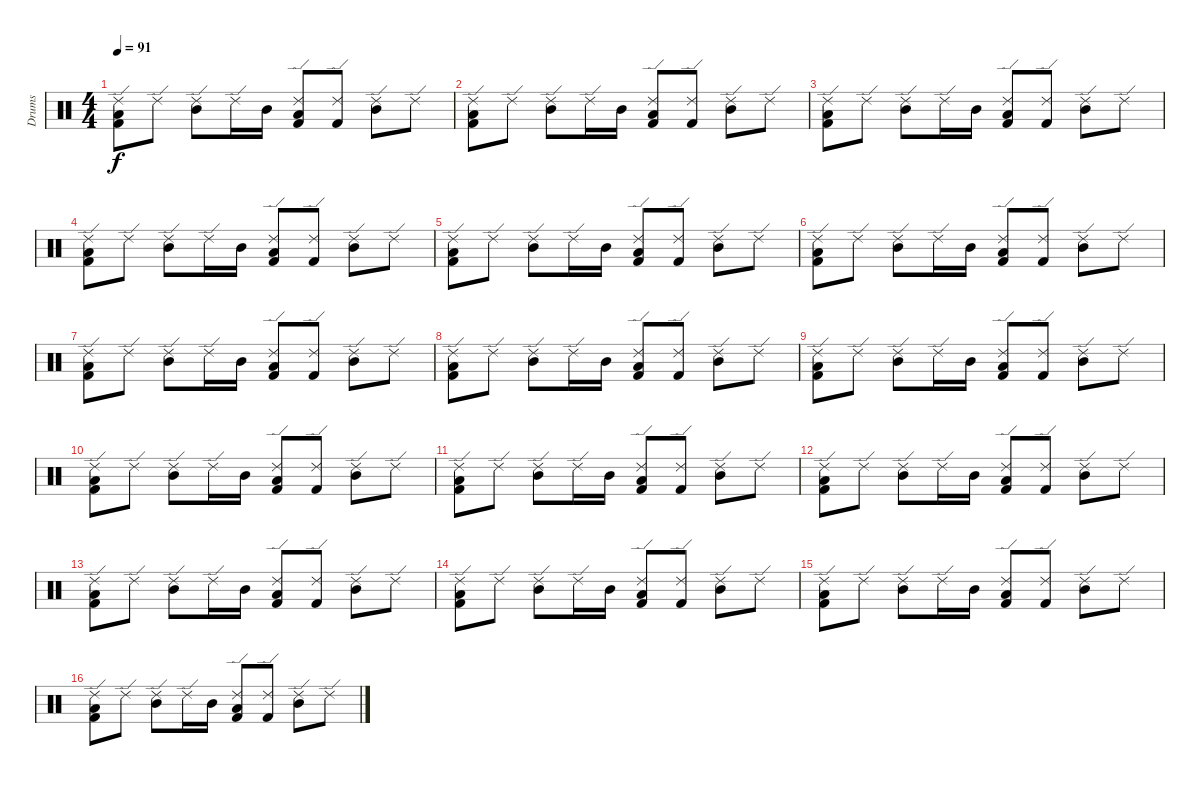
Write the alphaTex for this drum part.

\track ("Drums" "Drums") {instrument percussion}
\staff {score}
\articulation defaults
\ts (4 4)
\tempo 91
\clef neutral
\ks c
("Ride (edge) 2" "Kick (hit) 2" "Low Tom (hit)").8{dy f} "Ride (edge) 2".8 ("Ride (edge) 2" "Mid Tom (hit)").8 "Ride (edge) 2".16 "Mid Tom (hit)".16 ("Ride (edge) 2" "Kick (hit) 2" "Low Tom (hit)").8 ("Ride (edge) 2" "Kick (hit) 2").8 ("Ride (edge) 2" "Mid Tom (hit)").8 "Ride (edge) 2".8 |
("Ride (edge) 2" "Kick (hit) 2" "Low Tom (hit)").8 "Ride (edge) 2".8 ("Ride (edge) 2" "Mid Tom (hit)").8 "Ride (edge) 2".16 "Mid Tom (hit)".16 ("Ride (edge) 2" "Kick (hit) 2" "Low Tom (hit)").8 ("Ride (edge) 2" "Kick (hit) 2").8 ("Ride (edge) 2" "Mid Tom (hit)").8 "Ride (edge) 2".8 |
("Ride (edge) 2" "Kick (hit) 2" "Low Tom (hit)").8 "Ride (edge) 2".8 ("Ride (edge) 2" "Mid Tom (hit)").8 "Ride (edge) 2".16 "Mid Tom (hit)".16 ("Ride (edge) 2" "Kick (hit) 2" "Low Tom (hit)").8 ("Ride (edge) 2" "Kick (hit) 2").8 ("Ride (edge) 2" "Mid Tom (hit)").8 "Ride (edge) 2".8 |
("Ride (edge) 2" "Kick (hit) 2" "Low Tom (hit)").8 "Ride (edge) 2".8 ("Ride (edge) 2" "Mid Tom (hit)").8 "Ride (edge) 2".16 "Mid Tom (hit)".16 ("Ride (edge) 2" "Kick (hit) 2" "Low Tom (hit)").8 ("Ride (edge) 2" "Kick (hit) 2").8 ("Ride (edge) 2" "Mid Tom (hit)").8 "Ride (edge) 2".8 |
("Ride (edge) 2" "Kick (hit) 2" "Low Tom (hit)").8 "Ride (edge) 2".8 ("Ride (edge) 2" "Mid Tom (hit)").8 "Ride (edge) 2".16 "Mid Tom (hit)".16 ("Ride (edge) 2" "Kick (hit) 2" "Low Tom (hit)").8 ("Ride (edge) 2" "Kick (hit) 2").8 ("Ride (edge) 2" "Mid Tom (hit)").8 "Ride (edge) 2".8 |
("Ride (edge) 2" "Kick (hit) 2" "Low Tom (hit)").8 "Ride (edge) 2".8 ("Ride (edge) 2" "Mid Tom (hit)").8 "Ride (edge) 2".16 "Mid Tom (hit)".16 ("Ride (edge) 2" "Kick (hit) 2" "Low Tom (hit)").8 ("Ride (edge) 2" "Kick (hit) 2").8 ("Ride (edge) 2" "Mid Tom (hit)").8 "Ride (edge) 2".8 |
("Ride (edge) 2" "Kick (hit) 2" "Low Tom (hit)").8 "Ride (edge) 2".8 ("Ride (edge) 2" "Mid Tom (hit)").8 "Ride (edge) 2".16 "Mid Tom (hit)".16 ("Ride (edge) 2" "Kick (hit) 2" "Low Tom (hit)").8 ("Ride (edge) 2" "Kick (hit) 2").8 ("Ride (edge) 2" "Mid Tom (hit)").8 "Ride (edge) 2".8 |
("Ride (edge) 2" "Kick (hit) 2" "Low Tom (hit)").8 "Ride (edge) 2".8 ("Ride (edge) 2" "Mid Tom (hit)").8 "Ride (edge) 2".16 "Mid Tom (hit)".16 ("Ride (edge) 2" "Kick (hit) 2" "Low Tom (hit)").8 ("Ride (edge) 2" "Kick (hit) 2").8 ("Ride (edge) 2" "Mid Tom (hit)").8 "Ride (edge) 2".8 |
("Ride (edge) 2" "Kick (hit) 2" "Low Tom (hit)").8 "Ride (edge) 2".8 ("Ride (edge) 2" "Mid Tom (hit)").8 "Ride (edge) 2".16 "Mid Tom (hit)".16 ("Ride (edge) 2" "Kick (hit) 2" "Low Tom (hit)").8 ("Ride (edge) 2" "Kick (hit) 2").8 ("Ride (edge) 2" "Mid Tom (hit)").8 "Ride (edge) 2".8 |
("Ride (edge) 2" "Kick (hit) 2" "Low Tom (hit)").8 "Ride (edge) 2".8 ("Ride (edge) 2" "Mid Tom (hit)").8 "Ride (edge) 2".16 "Mid Tom (hit)".16 ("Ride (edge) 2" "Kick (hit) 2" "Low Tom (hit)").8 ("Ride (edge) 2" "Kick (hit) 2").8 ("Ride (edge) 2" "Mid Tom (hit)").8 "Ride (edge) 2".8 |
("Ride (edge) 2" "Kick (hit) 2" "Low Tom (hit)").8 "Ride (edge) 2".8 ("Ride (edge) 2" "Mid Tom (hit)").8 "Ride (edge) 2".16 "Mid Tom (hit)".16 ("Ride (edge) 2" "Kick (hit) 2" "Low Tom (hit)").8 ("Ride (edge) 2" "Kick (hit) 2").8 ("Ride (edge) 2" "Mid Tom (hit)").8 "Ride (edge) 2".8 |
("Ride (edge) 2" "Kick (hit) 2" "Low Tom (hit)").8 "Ride (edge) 2".8 ("Ride (edge) 2" "Mid Tom (hit)").8 "Ride (edge) 2".16 "Mid Tom (hit)".16 ("Ride (edge) 2" "Kick (hit) 2" "Low Tom (hit)").8 ("Ride (edge) 2" "Kick (hit) 2").8 ("Ride (edge) 2" "Mid Tom (hit)").8 "Ride (edge) 2".8 |
("Ride (edge) 2" "Kick (hit) 2" "Low Tom (hit)").8 "Ride (edge) 2".8 ("Ride (edge) 2" "Mid Tom (hit)").8 "Ride (edge) 2".16 "Mid Tom (hit)".16 ("Ride (edge) 2" "Kick (hit) 2" "Low Tom (hit)").8 ("Ride (edge) 2" "Kick (hit) 2").8 ("Ride (edge) 2" "Mid Tom (hit)").8 "Ride (edge) 2".8 |
("Ride (edge) 2" "Kick (hit) 2" "Low Tom (hit)").8 "Ride (edge) 2".8 ("Ride (edge) 2" "Mid Tom (hit)").8 "Ride (edge) 2".16 "Mid Tom (hit)".16 ("Ride (edge) 2" "Kick (hit) 2" "Low Tom (hit)").8 ("Ride (edge) 2" "Kick (hit) 2").8 ("Ride (edge) 2" "Mid Tom (hit)").8 "Ride (edge) 2".8 |
("Ride (edge) 2" "Kick (hit) 2" "Low Tom (hit)").8 "Ride (edge) 2".8 ("Ride (edge) 2" "Mid Tom (hit)").8 "Ride (edge) 2".16 "Mid Tom (hit)".16 ("Ride (edge) 2" "Kick (hit) 2" "Low Tom (hit)").8 ("Ride (edge) 2" "Kick (hit) 2").8 ("Ride (edge) 2" "Mid Tom (hit)").8 "Ride (edge) 2".8 |
("Ride (edge) 2" "Kick (hit) 2" "Low Tom (hit)").8 "Ride (edge) 2".8 ("Ride (edge) 2" "Mid Tom (hit)").8 "Ride (edge) 2".16 "Mid Tom (hit)".16 ("Ride (edge) 2" "Kick (hit) 2" "Low Tom (hit)").8 ("Ride (edge) 2" "Kick (hit) 2").8 ("Ride (edge) 2" "Mid Tom (hit)").8 "Ride (edge) 2".8
